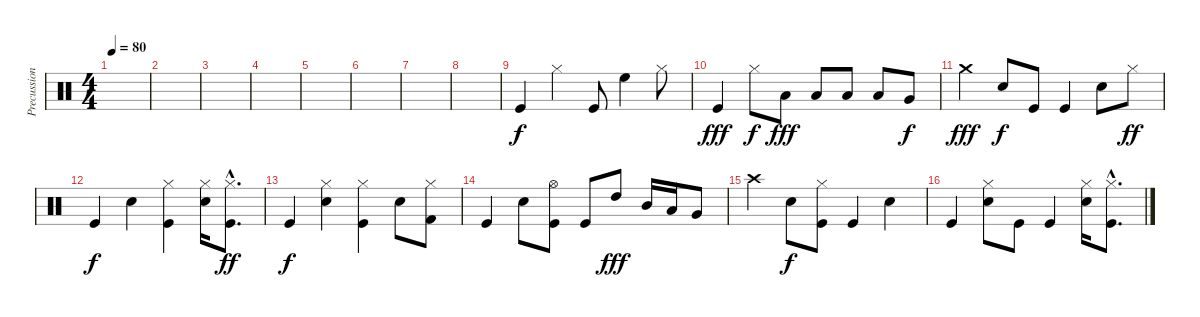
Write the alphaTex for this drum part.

\track ("Precussion" "Precussion") {instrument percussion}
\staff {score}
\articulation defaults
\ts (4 4)
\tempo 80
\clef neutral
\ks c
|
|
|
|
|
|
|
|
"Kick (hit)".4 "Hi-Hat (closed)".4 "Kick (hit)".8 "High Floor Tom (hit)".4 "Hi-Hat (closed)".8 |
"Kick (hit)".4{dy fff} "Hi-Hat (closed)".8{dy f} "Low Tom (hit)".8{dy fff} "Low Tom (hit)".8 "Low Tom (hit)".8 "Low Tom (hit)".8 "Very Low Tom (hit)".8{dy f} |
"Crash medium (hit)".4{dy fff} "Snare (hit) 2".8{dy f} "Kick (hit)".8 "Kick (hit)".4 "Snare (hit) 2".8 "Hi-Hat (closed)".8{dy ff} |
"Kick (hit)".4{dy f} "Snare (hit) 2".4 ("Hi-Hat (closed)" "Kick (hit)").4 ("Hi-Hat (closed)" "Snare (hit) 2").16 ("Hi-Hat (closed)"{hac} "Kick (hit)"{hac}).8{d dy ff} |
"Kick (hit)".4{dy f} ("Hi-Hat (closed)" "Snare (hit) 2").4 ("Hi-Hat (closed)" "Kick (hit)").4 "Snare (hit) 2".8 ("Hi-Hat (closed)" "Kick (hit) 2").8 |
"Kick (hit)".4 "Snare (hit) 2".8 ("Hi-Hat (open)" "Kick (hit)").8 "Kick (hit)".8 "High Tom (hit)".8{dy fff} "Mid Tom (hit)".16 "Low Tom (hit)".16 "Very Low Tom (hit)".8 |
"Crash high (hit)".4 "Snare (hit) 2".8{dy f} ("Hi-Hat (closed)" "Kick (hit)").8 "Kick (hit)".4 "Snare (hit) 2".4 |
"Kick (hit)".4 ("Hi-Hat (closed)" "Snare (hit) 2").8 "Kick (hit)".8 "Kick (hit)".4 ("Hi-Hat (closed)" "Snare (hit) 2").16 ("Hi-Hat (closed)"{hac} "Kick (hit)"{hac}).8{d}
